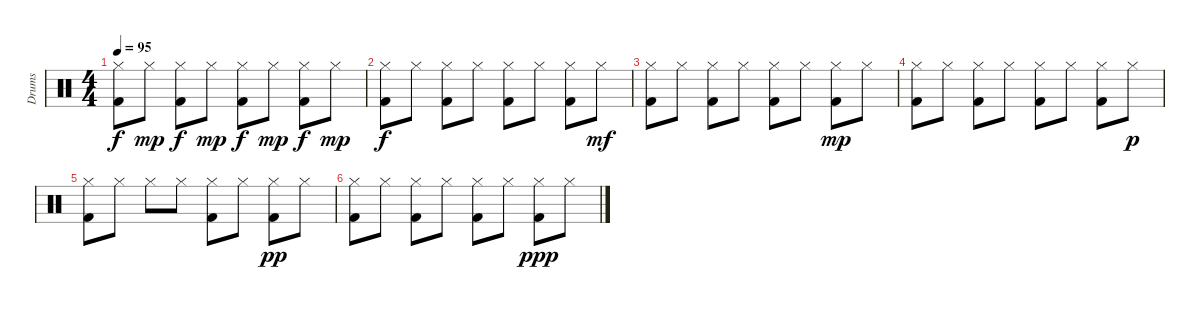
\track ("Drums" "Drums") {instrument percussion}
\staff {score}
\articulation defaults
\ts (4 4)
\tempo 95
\clef neutral
\ks c
("Kick (hit) 2" "Hi-Hat (closed)").8{dy f} "Hi-Hat (closed)".8{dy mp} ("Kick (hit) 2" "Hi-Hat (closed)").8{dy f} "Hi-Hat (closed)".8{dy mp} ("Kick (hit) 2" "Hi-Hat (closed)").8{dy f} "Hi-Hat (closed)".8{dy mp} ("Kick (hit) 2" "Hi-Hat (closed)").8{dy f} "Hi-Hat (closed)".8{dy mp} |
("Kick (hit) 2" "Hi-Hat (closed)").8{dy f} "Hi-Hat (closed)".8 ("Kick (hit) 2" "Hi-Hat (closed)").8 "Hi-Hat (closed)".8 ("Kick (hit) 2" "Hi-Hat (closed)").8 "Hi-Hat (closed)".8 ("Kick (hit) 2" "Hi-Hat (closed)").8 "Hi-Hat (closed)".8{dy mf} |
("Kick (hit) 2" "Hi-Hat (closed)").8 "Hi-Hat (closed)".8 ("Kick (hit) 2" "Hi-Hat (closed)").8 "Hi-Hat (closed)".8 ("Kick (hit) 2" "Hi-Hat (closed)").8 "Hi-Hat (closed)".8 ("Kick (hit) 2" "Hi-Hat (closed)").8{dy mp} "Hi-Hat (closed)".8 |
("Kick (hit) 2" "Hi-Hat (closed)").8 "Hi-Hat (closed)".8 ("Kick (hit) 2" "Hi-Hat (closed)").8 "Hi-Hat (closed)".8 ("Kick (hit) 2" "Hi-Hat (closed)").8 "Hi-Hat (closed)".8 ("Kick (hit) 2" "Hi-Hat (closed)").8 "Hi-Hat (closed)".8{dy p} |
("Kick (hit) 2" "Hi-Hat (closed)").8 "Hi-Hat (closed)".8 "Hi-Hat (closed)".8 "Hi-Hat (closed)".8 ("Kick (hit) 2" "Hi-Hat (closed)").8 "Hi-Hat (closed)".8 ("Kick (hit) 2" "Hi-Hat (closed)").8{dy pp} "Hi-Hat (closed)".8 |
("Kick (hit) 2" "Hi-Hat (closed)").8 "Hi-Hat (closed)".8 ("Kick (hit) 2" "Hi-Hat (closed)").8 "Hi-Hat (closed)".8 ("Kick (hit) 2" "Hi-Hat (closed)").8 "Hi-Hat (closed)".8 ("Kick (hit) 2" "Hi-Hat (closed)").8{dy ppp} "Hi-Hat (closed)".8
